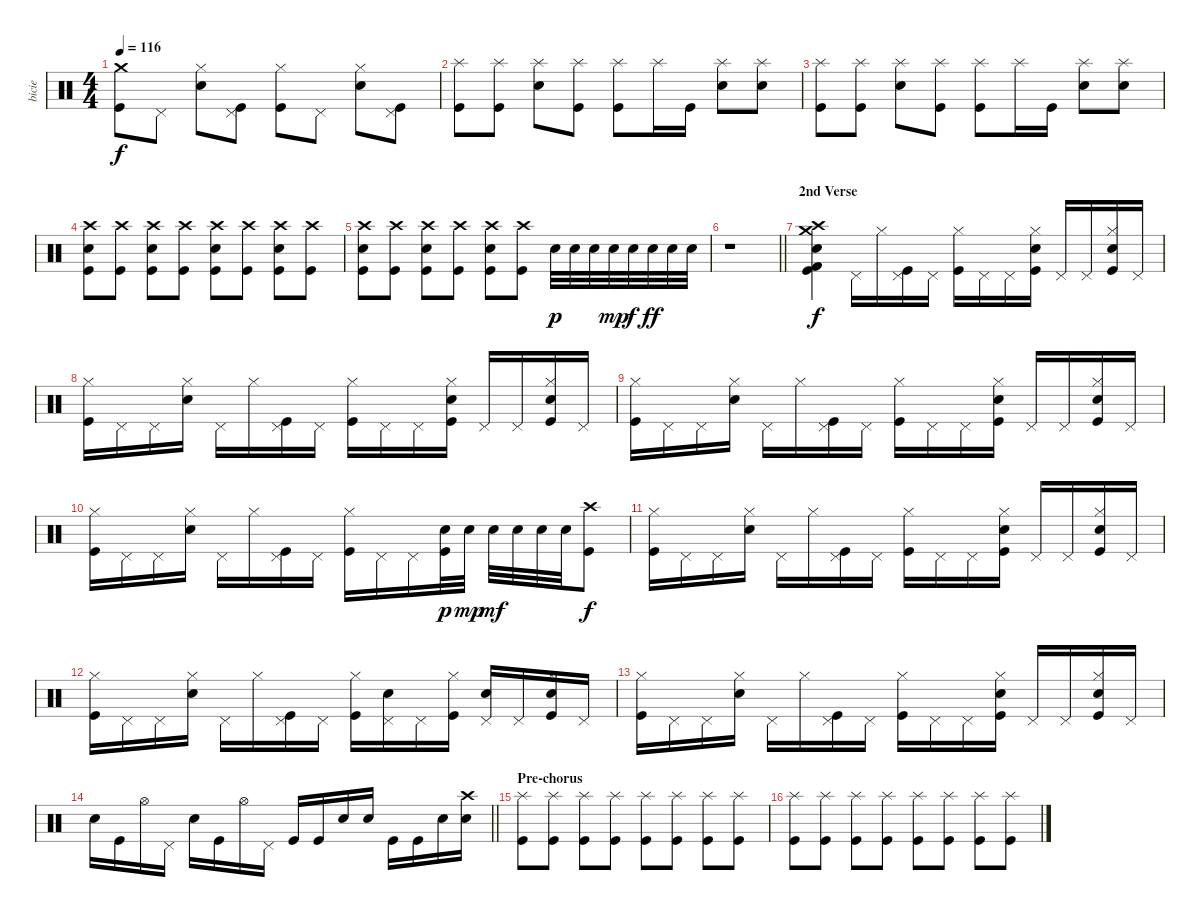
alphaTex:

\track ("bicie" "bicie") {instrument percussion}
\staff {score}
\articulation defaults
\ts (4 4)
\tempo 116
\clef neutral
\ks c
("Crash medium (hit)" "Kick (hit)").8{dy f} "Pedal Hi-Hat (hit)".8 ("Hi-Hat (closed)" "Electric Snare (hit)").8 ("Pedal Hi-Hat (hit)" "Kick (hit)").8 ("Hi-Hat (closed)" "Kick (hit)").8 "Pedal Hi-Hat (hit)".8 ("Hi-Hat (closed)" "Electric Snare (hit)").8 ("Pedal Hi-Hat (hit)" "Kick (hit)").8 |
("Splash (hit)" "Kick (hit)").8 ("Splash (hit)" "Kick (hit)").8 ("Splash (hit)" "Electric Snare (hit)").8 ("Splash (hit)" "Kick (hit)").8 ("Splash (hit)" "Kick (hit)").8 "Splash (hit)".16 "Kick (hit)".16 ("Splash (hit)" "Electric Snare (hit)").8 ("Splash (hit)" "Electric Snare (hit)").8 |
("Splash (hit)" "Kick (hit)").8 ("Splash (hit)" "Kick (hit)").8 ("Splash (hit)" "Electric Snare (hit)").8 ("Splash (hit)" "Kick (hit)").8 ("Splash (hit)" "Kick (hit)").8 "Splash (hit)".16 "Kick (hit)".16 ("Splash (hit)" "Electric Snare (hit)").8 ("Splash (hit)" "Electric Snare (hit)").8 |
("Crash high (hit)" "Electric Snare (hit)" "Kick (hit)").8 ("Crash high (hit)" "Kick (hit)").8 ("Crash high (hit)" "Electric Snare (hit)" "Kick (hit)").8 ("Crash high (hit)" "Kick (hit)").8 ("Crash high (hit)" "Electric Snare (hit)" "Kick (hit)").8 ("Crash high (hit)" "Kick (hit)").8 ("Crash high (hit)" "Electric Snare (hit)" "Kick (hit)").8 ("Crash high (hit)" "Kick (hit)").8 |
("Crash high (hit)" "Electric Snare (hit)" "Kick (hit)").8 ("Crash high (hit)" "Kick (hit)").8 ("Crash high (hit)" "Electric Snare (hit)" "Kick (hit)").8 ("Crash high (hit)" "Kick (hit)").8 ("Crash high (hit)" "Electric Snare (hit)" "Kick (hit)").8 ("Crash high (hit)" "Kick (hit)").8 "Electric Snare (hit)".32{dy p} "Electric Snare (hit)".32 "Electric Snare (hit)".32 "Electric Snare (hit)".32{dy mp} "Electric Snare (hit)".32{dy f} "Electric Snare (hit)".32{dy ff} "Electric Snare (hit)".32 "Electric Snare (hit)".32 |
\barLineRight lightlight
r.1 |
\section ("" "2nd Verse")
("Crash high (hit)" "Crash medium (hit)" "Electric Snare (hit)" "Kick (hit) 2" "Kick (hit)").4{dy f} "Pedal Hi-Hat (hit)".16 "Hi-Hat (closed)".16 ("Pedal Hi-Hat (hit)" "Kick (hit)").16 "Pedal Hi-Hat (hit)".16 ("Hi-Hat (closed)" "Kick (hit)").16 "Pedal Hi-Hat (hit)".16 "Pedal Hi-Hat (hit)".16 ("Hi-Hat (closed)" "Electric Snare (hit)" "Kick (hit)").16 "Pedal Hi-Hat (hit)".16 "Pedal Hi-Hat (hit)".16 ("Hi-Hat (closed)" "Electric Snare (hit)" "Kick (hit)").16 "Pedal Hi-Hat (hit)".16 |
("Hi-Hat (closed)" "Kick (hit)").16 "Pedal Hi-Hat (hit)".16 "Pedal Hi-Hat (hit)".16 ("Hi-Hat (closed)" "Electric Snare (hit)").16 "Pedal Hi-Hat (hit)".16 "Hi-Hat (closed)".16 ("Pedal Hi-Hat (hit)" "Kick (hit)").16 "Pedal Hi-Hat (hit)".16 ("Hi-Hat (closed)" "Kick (hit)").16 "Pedal Hi-Hat (hit)".16 "Pedal Hi-Hat (hit)".16 ("Hi-Hat (closed)" "Electric Snare (hit)" "Kick (hit)").16 "Pedal Hi-Hat (hit)".16 "Pedal Hi-Hat (hit)".16 ("Hi-Hat (closed)" "Electric Snare (hit)" "Kick (hit)").16 "Pedal Hi-Hat (hit)".16 |
("Hi-Hat (closed)" "Kick (hit)").16 "Pedal Hi-Hat (hit)".16 "Pedal Hi-Hat (hit)".16 ("Hi-Hat (closed)" "Electric Snare (hit)").16 "Pedal Hi-Hat (hit)".16 "Hi-Hat (closed)".16 ("Pedal Hi-Hat (hit)" "Kick (hit)").16 "Pedal Hi-Hat (hit)".16 ("Hi-Hat (closed)" "Kick (hit)").16 "Pedal Hi-Hat (hit)".16 "Pedal Hi-Hat (hit)".16 ("Hi-Hat (closed)" "Electric Snare (hit)" "Kick (hit)").16 "Pedal Hi-Hat (hit)".16 "Pedal Hi-Hat (hit)".16 ("Hi-Hat (closed)" "Electric Snare (hit)" "Kick (hit)").16 "Pedal Hi-Hat (hit)".16 |
("Hi-Hat (closed)" "Kick (hit)").16 "Pedal Hi-Hat (hit)".16 "Pedal Hi-Hat (hit)".16 ("Hi-Hat (closed)" "Electric Snare (hit)").16 "Pedal Hi-Hat (hit)".16 "Hi-Hat (closed)".16 ("Pedal Hi-Hat (hit)" "Kick (hit)").16 "Pedal Hi-Hat (hit)".16 ("Hi-Hat (closed)" "Kick (hit)").16 "Pedal Hi-Hat (hit)".16 "Pedal Hi-Hat (hit)".16 ("Electric Snare (hit)" "Kick (hit)").32{dy p} "Electric Snare (hit)".32{dy mp} "Electric Snare (hit)".32{dy mf} "Electric Snare (hit)".32 "Electric Snare (hit)".32 "Electric Snare (hit)".32 ("Crash high (hit)" "Kick (hit)").8{dy f} |
("Hi-Hat (closed)" "Kick (hit)").16 "Pedal Hi-Hat (hit)".16 "Pedal Hi-Hat (hit)".16 ("Hi-Hat (closed)" "Electric Snare (hit)").16 "Pedal Hi-Hat (hit)".16 "Hi-Hat (closed)".16 ("Pedal Hi-Hat (hit)" "Kick (hit)").16 "Pedal Hi-Hat (hit)".16 ("Hi-Hat (closed)" "Kick (hit)").16 "Pedal Hi-Hat (hit)".16 "Pedal Hi-Hat (hit)".16 ("Hi-Hat (closed)" "Electric Snare (hit)" "Kick (hit)").16 "Pedal Hi-Hat (hit)".16 "Pedal Hi-Hat (hit)".16 ("Hi-Hat (closed)" "Electric Snare (hit)" "Kick (hit)").16 "Pedal Hi-Hat (hit)".16 |
("Hi-Hat (closed)" "Kick (hit)").16 "Pedal Hi-Hat (hit)".16 "Pedal Hi-Hat (hit)".16 ("Hi-Hat (closed)" "Electric Snare (hit)").16 "Pedal Hi-Hat (hit)".16 "Hi-Hat (closed)".16 ("Pedal Hi-Hat (hit)" "Kick (hit)").16 "Pedal Hi-Hat (hit)".16 ("Hi-Hat (closed)" "Kick (hit)").16 ("Pedal Hi-Hat (hit)" "Electric Snare (hit)").16 "Pedal Hi-Hat (hit)".16 ("Hi-Hat (closed)" "Kick (hit)").16 ("Pedal Hi-Hat (hit)" "Electric Snare (hit)").16 "Pedal Hi-Hat (hit)".16 ("Hi-Hat (closed)" "Electric Snare (hit)" "Kick (hit)").16 "Pedal Hi-Hat (hit)".16 |
("Hi-Hat (closed)" "Kick (hit)").16 "Pedal Hi-Hat (hit)".16 "Pedal Hi-Hat (hit)".16 ("Hi-Hat (closed)" "Electric Snare (hit)").16 "Pedal Hi-Hat (hit)".16 "Hi-Hat (closed)".16 ("Pedal Hi-Hat (hit)" "Kick (hit)").16 "Pedal Hi-Hat (hit)".16 ("Hi-Hat (closed)" "Kick (hit)").16 "Pedal Hi-Hat (hit)".16 "Pedal Hi-Hat (hit)".16 ("Hi-Hat (closed)" "Electric Snare (hit)" "Kick (hit)").16 "Pedal Hi-Hat (hit)".16 "Pedal Hi-Hat (hit)".16 ("Hi-Hat (closed)" "Electric Snare (hit)" "Kick (hit)").16 "Pedal Hi-Hat (hit)".16 |
\barLineRight lightlight "Electric Snare (hit)".16 "Kick (hit)".16 "Hi-Hat (open)".16 "Pedal Hi-Hat (hit)".16 "Electric Snare (hit)".16 "Kick (hit)".16 "Hi-Hat (open)".16 "Pedal Hi-Hat (hit)".16 "Kick (hit)".16 "Kick (hit)".16 "Electric Snare (hit)".16 "Electric Snare (hit)".16 "Kick (hit)".16 "Kick (hit)".16 "Electric Snare (hit)".16
("Crash high (hit)" "Electric Snare (hit)").16 |
\section ("" "Pre-chorus")
("Splash (hit)" "Kick (hit)").8 ("Splash (hit)" "Kick (hit)").8 ("Splash (hit)" "Kick (hit)").8 ("Splash (hit)" "Kick (hit)").8 ("Splash (hit)" "Kick (hit)").8 ("Splash (hit)" "Kick (hit)").8 ("Splash (hit)" "Kick (hit)").8 ("Splash (hit)" "Kick (hit)").8 |
("Splash (hit)" "Kick (hit)").8 ("Splash (hit)" "Kick (hit)").8 ("Splash (hit)" "Kick (hit)").8 ("Splash (hit)" "Kick (hit)").8 ("Splash (hit)" "Kick (hit)").8 ("Splash (hit)" "Kick (hit)").8 ("Splash (hit)" "Kick (hit)").8 ("Splash (hit)" "Kick (hit)").8
